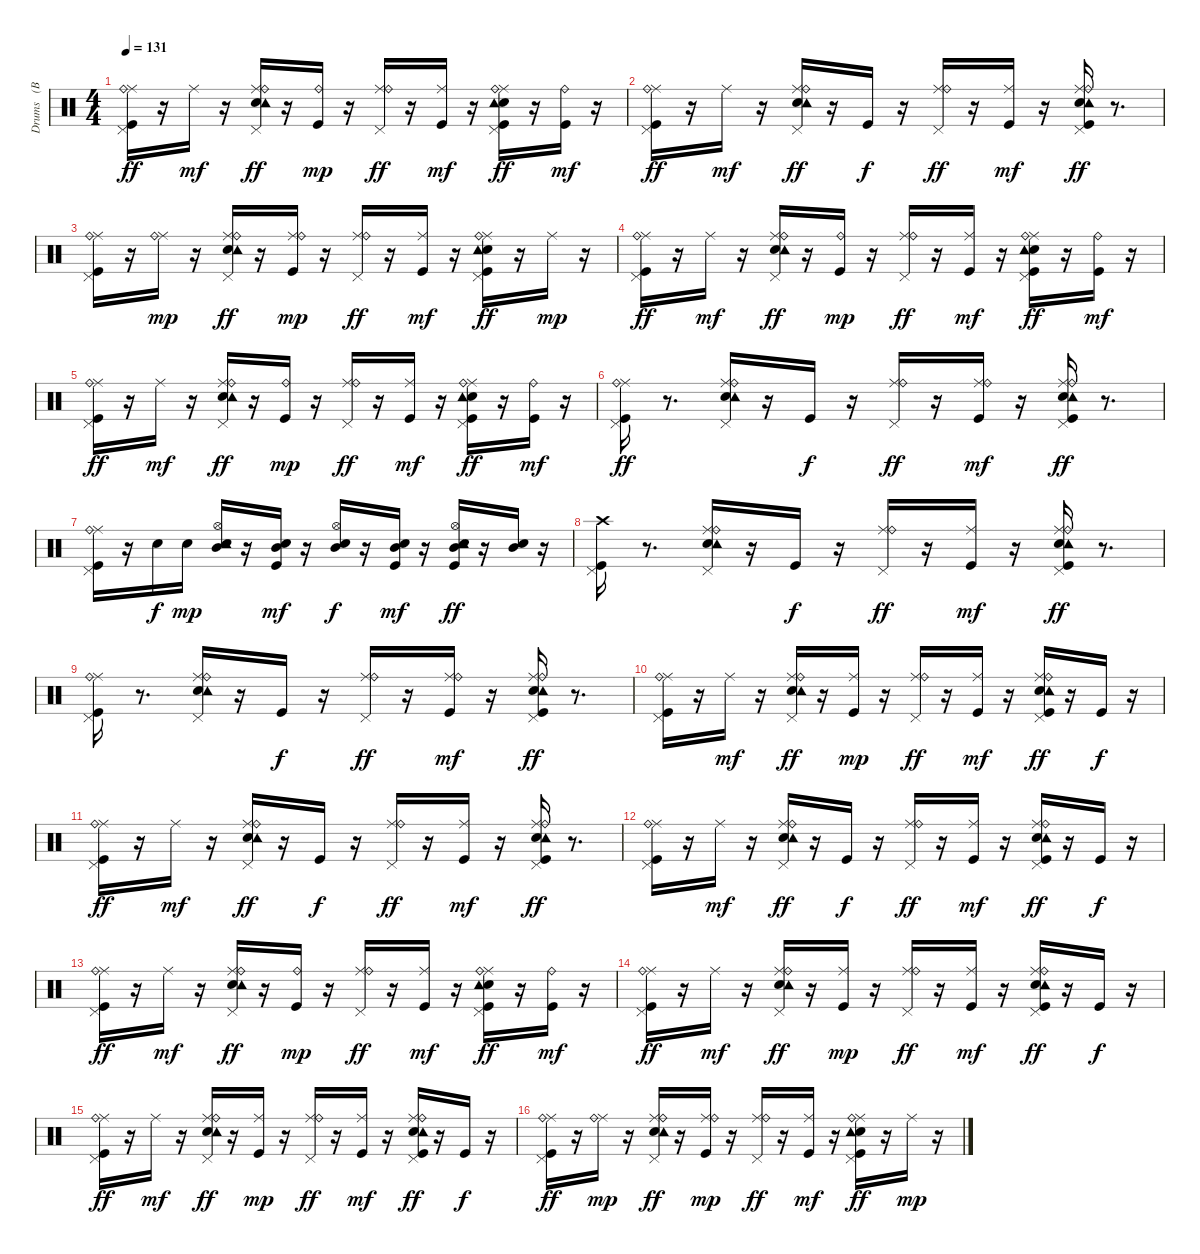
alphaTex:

\track ("Drums   (BB)" "Drums   (B") {instrument percussion}
\staff {score}
\articulation defaults
\ts (4 4)
\tempo 131
\clef neutral
\ks c
("Kick (hit)" "Pedal Hi-Hat (hit)" "Ride (middle)" "Ride (bell)").16{dy ff} r.16 "Ride (middle)".16{dy mf} r.16 ("Snare (hit) 2" "Tambourine (hit)" "Pedal Hi-Hat (hit)" "Ride (middle)" "Ride (bell)").16{dy ff} r.16 ("Kick (hit)" "Ride (bell)").16{dy mp} r.16 ("Pedal Hi-Hat (hit)" "Ride (middle)" "Ride (bell)").16{dy ff} r.16 ("Kick (hit)" "Ride (middle)").16{dy mf} r.16 ("Kick (hit)" "Snare (hit) 2" "Tambourine (hit)" "Pedal Hi-Hat (hit)" "Ride (middle)" "Ride (bell)").16{dy ff} r.16 ("Kick (hit)" "Ride (bell)").16{dy mf} r.16 |
("Kick (hit)" "Pedal Hi-Hat (hit)" "Ride (middle)" "Ride (bell)").16{dy ff} r.16 "Ride (middle)".16{dy mf} r.16 ("Snare (hit) 2" "Tambourine (hit)" "Pedal Hi-Hat (hit)" "Ride (middle)" "Ride (bell)").16{dy ff} r.16 "Kick (hit)".16{dy f} r.16 ("Pedal Hi-Hat (hit)" "Ride (middle)" "Ride (bell)").16{dy ff} r.16 ("Kick (hit)" "Ride (middle)").16{dy mf} r.16 ("Kick (hit)" "Snare (hit) 2" "Tambourine (hit)" "Pedal Hi-Hat (hit)" "Ride (middle)" "Ride (bell)").16{dy ff} r.8{d} |
("Kick (hit)" "Pedal Hi-Hat (hit)" "Ride (middle)" "Ride (bell)").16 r.16 ("Ride (middle)" "Ride (bell)").16{dy mp} r.16 ("Snare (hit) 2" "Tambourine (hit)" "Pedal Hi-Hat (hit)" "Ride (middle)" "Ride (bell)").16{dy ff} r.16 ("Kick (hit)" "Ride (middle)" "Ride (bell)").16{dy mp} r.16 ("Pedal Hi-Hat (hit)" "Ride (middle)" "Ride (bell)").16{dy ff} r.16 ("Kick (hit)" "Ride (middle)").16{dy mf} r.16 ("Kick (hit)" "Snare (hit) 2" "Tambourine (hit)" "Pedal Hi-Hat (hit)" "Ride (middle)" "Ride (bell)").16{dy ff} r.16 "Ride (middle)".16{dy mp} r.16 |
("Kick (hit)" "Pedal Hi-Hat (hit)" "Ride (middle)" "Ride (bell)").16{dy ff} r.16 "Ride (middle)".16{dy mf} r.16 ("Snare (hit) 2" "Tambourine (hit)" "Pedal Hi-Hat (hit)" "Ride (middle)" "Ride (bell)").16{dy ff} r.16 ("Kick (hit)" "Ride (bell)").16{dy mp} r.16 ("Pedal Hi-Hat (hit)" "Ride (middle)" "Ride (bell)").16{dy ff} r.16 ("Kick (hit)" "Ride (middle)").16{dy mf} r.16 ("Kick (hit)" "Snare (hit) 2" "Tambourine (hit)" "Pedal Hi-Hat (hit)" "Ride (middle)" "Ride (bell)").16{dy ff} r.16 ("Kick (hit)" "Ride (bell)").16{dy mf} r.16 |
("Kick (hit)" "Pedal Hi-Hat (hit)" "Ride (middle)" "Ride (bell)").16{dy ff} r.16 "Ride (middle)".16{dy mf} r.16 ("Snare (hit) 2" "Tambourine (hit)" "Pedal Hi-Hat (hit)" "Ride (middle)" "Ride (bell)").16{dy ff} r.16 ("Kick (hit)" "Ride (bell)").16{dy mp} r.16 ("Pedal Hi-Hat (hit)" "Ride (middle)" "Ride (bell)").16{dy ff} r.16 ("Kick (hit)" "Ride (middle)").16{dy mf} r.16 ("Kick (hit)" "Snare (hit) 2" "Tambourine (hit)" "Pedal Hi-Hat (hit)" "Ride (middle)" "Ride (bell)").16{dy ff} r.16 ("Kick (hit)" "Ride (bell)").16{dy mf} r.16 |
("Kick (hit)" "Pedal Hi-Hat (hit)" "Ride (middle)" "Ride (bell)").16{dy ff} r.8{d} ("Snare (hit) 2" "Tambourine (hit)" "Pedal Hi-Hat (hit)" "Ride (middle)" "Ride (bell)").16 r.16 "Kick (hit)".16{dy f} r.16 ("Pedal Hi-Hat (hit)" "Ride (middle)" "Ride (bell)").16{dy ff} r.16 ("Kick (hit)" "Ride (middle)" "Ride (bell)").16{dy mf} r.16 ("Kick (hit)" "Snare (hit) 2" "Tambourine (hit)" "Pedal Hi-Hat (hit)" "Ride (middle)" "Ride (bell)").16{dy ff} r.8{d} |
("Kick (hit)" "Pedal Hi-Hat (hit)" "Ride (middle)" "Ride (bell)").16 r.16 "Snare (hit) 2".16{dy f} "Snare (hit) 2".16{dy mp} ("Snare (hit) 2" "Tambourine (hit)" "Hi-Hat (open)" "Mid Tom (hit)").16 r.16 ("Kick (hit)" "Snare (hit) 2" "Mid Tom (hit)").16{dy mf} r.16 ("Snare (hit) 2" "Hi-Hat (open)" "Mid Tom (hit)").16{dy f} r.16 ("Kick (hit)" "Snare (hit) 2" "Mid Tom (hit)").16{dy mf} r.16 ("Kick (hit)" "Snare (hit) 2" "Tambourine (hit)" "Hi-Hat (open)" "Mid Tom (hit)").16{dy ff} r.16 ("Snare (hit) 2" "Mid Tom (hit)").16 r.16 |
("Kick (hit)" "Pedal Hi-Hat (hit)" "Crash high (hit)").16 r.8{d} ("Snare (hit) 2" "Tambourine (hit)" "Pedal Hi-Hat (hit)" "Ride (middle)" "Ride (bell)").16 r.16 "Kick (hit)".16{dy f} r.16 ("Pedal Hi-Hat (hit)" "Ride (middle)" "Ride (bell)").16{dy ff} r.16 ("Kick (hit)" "Ride (middle)").16{dy mf} r.16 ("Kick (hit)" "Snare (hit) 2" "Tambourine (hit)" "Pedal Hi-Hat (hit)" "Ride (middle)" "Ride (bell)").16{dy ff} r.8{d} |
("Kick (hit)" "Pedal Hi-Hat (hit)" "Ride (middle)" "Ride (bell)").16 r.8{d} ("Snare (hit) 2" "Tambourine (hit)" "Pedal Hi-Hat (hit)" "Ride (middle)" "Ride (bell)").16 r.16 "Kick (hit)".16{dy f} r.16 ("Pedal Hi-Hat (hit)" "Ride (middle)" "Ride (bell)").16{dy ff} r.16 ("Kick (hit)" "Ride (middle)" "Ride (bell)").16{dy mf} r.16 ("Kick (hit)" "Snare (hit) 2" "Tambourine (hit)" "Pedal Hi-Hat (hit)" "Ride (middle)" "Ride (bell)").16{dy ff} r.8{d} |
("Kick (hit)" "Pedal Hi-Hat (hit)" "Ride (middle)" "Ride (bell)").16 r.16 "Ride (middle)".16{dy mf} r.16 ("Snare (hit) 2" "Tambourine (hit)" "Pedal Hi-Hat (hit)" "Ride (middle)" "Ride (bell)").16{dy ff} r.16 ("Kick (hit)" "Ride (middle)").16{dy mp} r.16 ("Pedal Hi-Hat (hit)" "Ride (middle)" "Ride (bell)").16{dy ff} r.16 ("Kick (hit)" "Ride (middle)").16{dy mf} r.16 ("Kick (hit)" "Snare (hit) 2" "Tambourine (hit)" "Pedal Hi-Hat (hit)" "Ride (middle)" "Ride (bell)").16{dy ff} r.16 "Kick (hit)".16{dy f} r.16 |
("Kick (hit)" "Pedal Hi-Hat (hit)" "Ride (middle)" "Ride (bell)").16{dy ff} r.16 "Ride (middle)".16{dy mf} r.16 ("Snare (hit) 2" "Tambourine (hit)" "Pedal Hi-Hat (hit)" "Ride (middle)" "Ride (bell)").16{dy ff} r.16 "Kick (hit)".16{dy f} r.16 ("Pedal Hi-Hat (hit)" "Ride (middle)" "Ride (bell)").16{dy ff} r.16 ("Kick (hit)" "Ride (middle)").16{dy mf} r.16 ("Kick (hit)" "Snare (hit) 2" "Tambourine (hit)" "Pedal Hi-Hat (hit)" "Ride (middle)" "Ride (bell)").16{dy ff} r.8{d} |
("Kick (hit)" "Pedal Hi-Hat (hit)" "Ride (middle)" "Ride (bell)").16 r.16 "Ride (middle)".16{dy mf} r.16 ("Snare (hit) 2" "Tambourine (hit)" "Pedal Hi-Hat (hit)" "Ride (middle)" "Ride (bell)").16{dy ff} r.16 "Kick (hit)".16{dy f} r.16 ("Pedal Hi-Hat (hit)" "Ride (middle)" "Ride (bell)").16{dy ff} r.16 ("Kick (hit)" "Ride (middle)").16{dy mf} r.16 ("Kick (hit)" "Snare (hit) 2" "Tambourine (hit)" "Pedal Hi-Hat (hit)" "Ride (middle)" "Ride (bell)").16{dy ff} r.16 "Kick (hit)".16{dy f} r.16 |
("Kick (hit)" "Pedal Hi-Hat (hit)" "Ride (middle)" "Ride (bell)").16{dy ff} r.16 "Ride (middle)".16{dy mf} r.16 ("Snare (hit) 2" "Tambourine (hit)" "Pedal Hi-Hat (hit)" "Ride (middle)" "Ride (bell)").16{dy ff} r.16 ("Kick (hit)" "Ride (bell)").16{dy mp} r.16 ("Pedal Hi-Hat (hit)" "Ride (middle)" "Ride (bell)").16{dy ff} r.16 ("Kick (hit)" "Ride (middle)").16{dy mf} r.16 ("Kick (hit)" "Snare (hit) 2" "Tambourine (hit)" "Pedal Hi-Hat (hit)" "Ride (middle)" "Ride (bell)").16{dy ff} r.16 ("Kick (hit)" "Ride (bell)").16{dy mf} r.16 |
("Kick (hit)" "Pedal Hi-Hat (hit)" "Ride (middle)" "Ride (bell)").16{dy ff} r.16 "Ride (middle)".16{dy mf} r.16 ("Snare (hit) 2" "Tambourine (hit)" "Pedal Hi-Hat (hit)" "Ride (middle)" "Ride (bell)").16{dy ff} r.16 ("Kick (hit)" "Ride (middle)").16{dy mp} r.16 ("Pedal Hi-Hat (hit)" "Ride (middle)" "Ride (bell)").16{dy ff} r.16 ("Kick (hit)" "Ride (middle)").16{dy mf} r.16 ("Kick (hit)" "Snare (hit) 2" "Tambourine (hit)" "Pedal Hi-Hat (hit)" "Ride (middle)" "Ride (bell)").16{dy ff} r.16 "Kick (hit)".16{dy f} r.16 |
("Kick (hit)" "Pedal Hi-Hat (hit)" "Ride (middle)" "Ride (bell)").16{dy ff} r.16 "Ride (middle)".16{dy mf} r.16 ("Snare (hit) 2" "Tambourine (hit)" "Pedal Hi-Hat (hit)" "Ride (middle)" "Ride (bell)").16{dy ff} r.16 ("Kick (hit)" "Ride (middle)").16{dy mp} r.16 ("Pedal Hi-Hat (hit)" "Ride (middle)" "Ride (bell)").16{dy ff} r.16 ("Kick (hit)" "Ride (middle)").16{dy mf} r.16 ("Kick (hit)" "Snare (hit) 2" "Tambourine (hit)" "Pedal Hi-Hat (hit)" "Ride (middle)" "Ride (bell)").16{dy ff} r.16 "Kick (hit)".16{dy f} r.16 |
("Kick (hit)" "Pedal Hi-Hat (hit)" "Ride (middle)" "Ride (bell)").16{dy ff} r.16 ("Ride (middle)" "Ride (bell)").16{dy mp} r.16 ("Snare (hit) 2" "Tambourine (hit)" "Pedal Hi-Hat (hit)" "Ride (middle)" "Ride (bell)").16{dy ff} r.16 ("Kick (hit)" "Ride (middle)" "Ride (bell)").16{dy mp} r.16 ("Pedal Hi-Hat (hit)" "Ride (middle)" "Ride (bell)").16{dy ff} r.16 ("Kick (hit)" "Ride (middle)").16{dy mf} r.16 ("Kick (hit)" "Snare (hit) 2" "Tambourine (hit)" "Pedal Hi-Hat (hit)" "Ride (middle)" "Ride (bell)").16{dy ff} r.16 "Ride (middle)".16{dy mp} r.16
